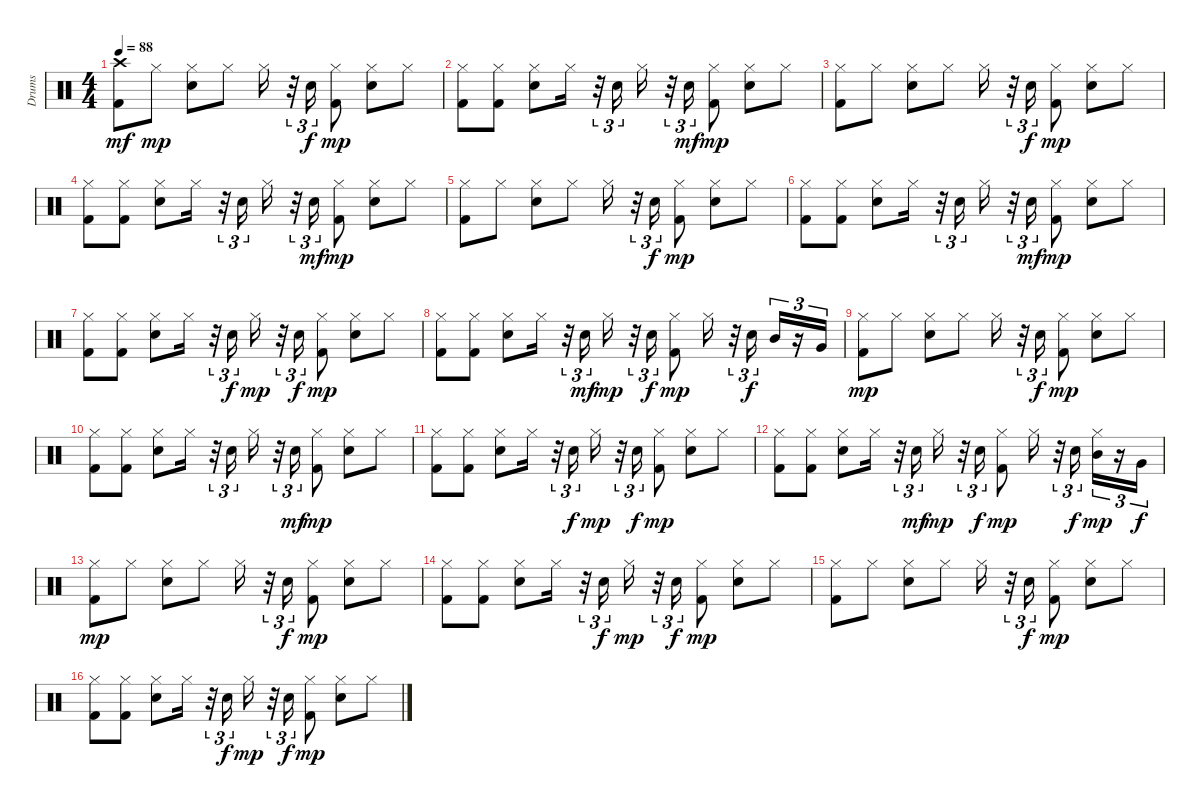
\track ("Drums" "Drums") {instrument percussion}
\staff {score}
\articulation defaults
\ts (4 4)
\tempo 88
\clef neutral
\ks c
("Crash high (hit)" "Kick (hit) 2").8{dy mf} "Hi-Hat (closed)".8{dy mp} ("Hi-Hat (closed)" "Electric Snare (hit)").8 "Hi-Hat (closed)".8 "Hi-Hat (closed)".16 r.32{tu (3 2)} "Electric Snare (hit)".16{tu (3 2) dy f} ("Hi-Hat (closed)" "Kick (hit) 2").8{dy mp} ("Hi-Hat (closed)" "Electric Snare (hit)").8 "Hi-Hat (closed)".8 |
("Hi-Hat (closed)" "Kick (hit) 2").8 ("Hi-Hat (closed)" "Kick (hit) 2").8 ("Hi-Hat (closed)" "Electric Snare (hit)").8 "Hi-Hat (closed)".16 r.32{tu (3 2)} "Electric Snare (hit)".16{tu (3 2)} "Hi-Hat (closed)".16 r.32{tu (3 2)} "Electric Snare (hit)".16{tu (3 2) dy mf} ("Hi-Hat (closed)" "Kick (hit) 2").8{dy mp} ("Hi-Hat (closed)" "Electric Snare (hit)").8 "Hi-Hat (closed)".8 |
("Hi-Hat (closed)" "Kick (hit) 2").8 "Hi-Hat (closed)".8 ("Hi-Hat (closed)" "Electric Snare (hit)").8 "Hi-Hat (closed)".8 "Hi-Hat (closed)".16 r.32{tu (3 2)} "Electric Snare (hit)".16{tu (3 2) dy f} ("Hi-Hat (closed)" "Kick (hit) 2").8{dy mp} ("Hi-Hat (closed)" "Electric Snare (hit)").8 "Hi-Hat (closed)".8 |
("Hi-Hat (closed)" "Kick (hit) 2").8 ("Hi-Hat (closed)" "Kick (hit) 2").8 ("Hi-Hat (closed)" "Electric Snare (hit)").8 "Hi-Hat (closed)".16 r.32{tu (3 2)} "Electric Snare (hit)".16{tu (3 2)} "Hi-Hat (closed)".16 r.32{tu (3 2)} "Electric Snare (hit)".16{tu (3 2) dy mf} ("Hi-Hat (closed)" "Kick (hit) 2").8{dy mp} ("Hi-Hat (closed)" "Electric Snare (hit)").8 "Hi-Hat (closed)".8 |
("Hi-Hat (closed)" "Kick (hit) 2").8 "Hi-Hat (closed)".8 ("Hi-Hat (closed)" "Electric Snare (hit)").8 "Hi-Hat (closed)".8 "Hi-Hat (closed)".16 r.32{tu (3 2)} "Electric Snare (hit)".16{tu (3 2) dy f} ("Hi-Hat (closed)" "Kick (hit) 2").8{dy mp} ("Hi-Hat (closed)" "Electric Snare (hit)").8 "Hi-Hat (closed)".8 |
("Hi-Hat (closed)" "Kick (hit) 2").8 ("Hi-Hat (closed)" "Kick (hit) 2").8 ("Hi-Hat (closed)" "Electric Snare (hit)").8 "Hi-Hat (closed)".16 r.32{tu (3 2)} "Electric Snare (hit)".16{tu (3 2)} "Hi-Hat (closed)".16 r.32{tu (3 2)} "Electric Snare (hit)".16{tu (3 2) dy mf} ("Hi-Hat (closed)" "Kick (hit) 2").8{dy mp} ("Hi-Hat (closed)" "Electric Snare (hit)").8 "Hi-Hat (closed)".8 |
("Hi-Hat (closed)" "Kick (hit) 2").8 ("Hi-Hat (closed)" "Kick (hit) 2").8 ("Hi-Hat (closed)" "Electric Snare (hit)").8 "Hi-Hat (closed)".16 r.32{tu (3 2)} "Electric Snare (hit)".16{tu (3 2) dy f} "Hi-Hat (closed)".16{dy mp} r.32{tu (3 2)} "Electric Snare (hit)".16{tu (3 2) dy f} ("Hi-Hat (closed)" "Kick (hit) 2").8{dy mp} ("Hi-Hat (closed)" "Electric Snare (hit)").8 "Hi-Hat (closed)".8 |
("Hi-Hat (closed)" "Kick (hit) 2").8 ("Hi-Hat (closed)" "Kick (hit) 2").8 ("Hi-Hat (closed)" "Electric Snare (hit)").8 "Hi-Hat (closed)".16 r.32{tu (3 2)} "Electric Snare (hit)".16{tu (3 2) dy mf} "Hi-Hat (closed)".16{dy mp} r.32{tu (3 2)} "Electric Snare (hit)".16{tu (3 2) dy f} ("Hi-Hat (closed)" "Kick (hit) 2").8{dy mp} "Hi-Hat (closed)".16 r.32{tu (3 2)} "Electric Snare (hit)".16{tu (3 2) dy f} "Mid Tom (hit)".16{tu (3 2)} r.16{tu (3 2)} "Very Low Tom (hit)".16{tu (3 2)} |
("Hi-Hat (closed)" "Kick (hit) 2").8{dy mp volume 13 balance 8} "Hi-Hat (closed)".8 ("Hi-Hat (closed)" "Electric Snare (hit)").8 "Hi-Hat (closed)".8 "Hi-Hat (closed)".16 r.32{tu (3 2)} "Electric Snare (hit)".16{tu (3 2) dy f} ("Hi-Hat (closed)" "Kick (hit) 2").8{dy mp} ("Hi-Hat (closed)" "Electric Snare (hit)").8 "Hi-Hat (closed)".8 |
("Hi-Hat (closed)" "Kick (hit) 2").8 ("Hi-Hat (closed)" "Kick (hit) 2").8 ("Hi-Hat (closed)" "Electric Snare (hit)").8 "Hi-Hat (closed)".16 r.32{tu (3 2)} "Electric Snare (hit)".16{tu (3 2)} "Hi-Hat (closed)".16 r.32{tu (3 2)} "Electric Snare (hit)".16{tu (3 2) dy mf} ("Hi-Hat (closed)" "Kick (hit) 2").8{dy mp} ("Hi-Hat (closed)" "Electric Snare (hit)").8 "Hi-Hat (closed)".8 |
("Hi-Hat (closed)" "Kick (hit) 2").8 ("Hi-Hat (closed)" "Kick (hit) 2").8 ("Hi-Hat (closed)" "Electric Snare (hit)").8 "Hi-Hat (closed)".16 r.32{tu (3 2)} "Electric Snare (hit)".16{tu (3 2) dy f} "Hi-Hat (closed)".16{dy mp} r.32{tu (3 2)} "Electric Snare (hit)".16{tu (3 2) dy f} ("Hi-Hat (closed)" "Kick (hit) 2").8{dy mp} ("Hi-Hat (closed)" "Electric Snare (hit)").8 "Hi-Hat (closed)".8 |
("Hi-Hat (closed)" "Kick (hit) 2").8 ("Hi-Hat (closed)" "Kick (hit) 2").8 ("Hi-Hat (closed)" "Electric Snare (hit)").8 "Hi-Hat (closed)".16 r.32{tu (3 2)} "Electric Snare (hit)".16{tu (3 2) dy mf} "Hi-Hat (closed)".16{dy mp} r.32{tu (3 2)} "Electric Snare (hit)".16{tu (3 2) dy f} ("Hi-Hat (closed)" "Kick (hit) 2").8{dy mp} "Hi-Hat (closed)".16 r.32{tu (3 2)} "Electric Snare (hit)".16{tu (3 2) dy f} ("Hi-Hat (closed)" "Mid Tom (hit)").16{tu (3 2) dy mp} r.16{tu (3 2)} "Very Low Tom (hit)".16{tu (3 2) dy f} |
("Hi-Hat (closed)" "Kick (hit) 2").8{dy mp} "Hi-Hat (closed)".8 ("Hi-Hat (closed)" "Electric Snare (hit)").8 "Hi-Hat (closed)".8 "Hi-Hat (closed)".16 r.32{tu (3 2)} "Electric Snare (hit)".16{tu (3 2) dy f} ("Hi-Hat (closed)" "Kick (hit) 2").8{dy mp} ("Hi-Hat (closed)" "Electric Snare (hit)").8 "Hi-Hat (closed)".8 |
("Hi-Hat (closed)" "Kick (hit) 2").8 ("Hi-Hat (closed)" "Kick (hit) 2").8 ("Hi-Hat (closed)" "Electric Snare (hit)").8 "Hi-Hat (closed)".16 r.32{tu (3 2)} "Electric Snare (hit)".16{tu (3 2) dy f} "Hi-Hat (closed)".16{dy mp} r.32{tu (3 2)} "Electric Snare (hit)".16{tu (3 2) dy f} ("Hi-Hat (closed)" "Kick (hit) 2").8{dy mp} ("Hi-Hat (closed)" "Electric Snare (hit)").8 "Hi-Hat (closed)".8 |
("Hi-Hat (closed)" "Kick (hit) 2").8 "Hi-Hat (closed)".8 ("Hi-Hat (closed)" "Electric Snare (hit)").8 "Hi-Hat (closed)".8 "Hi-Hat (closed)".16 r.32{tu (3 2)} "Electric Snare (hit)".16{tu (3 2) dy f} ("Hi-Hat (closed)" "Kick (hit) 2").8{dy mp} ("Hi-Hat (closed)" "Electric Snare (hit)").8 "Hi-Hat (closed)".8 |
("Hi-Hat (closed)" "Kick (hit) 2").8 ("Hi-Hat (closed)" "Kick (hit) 2").8 ("Hi-Hat (closed)" "Electric Snare (hit)").8 "Hi-Hat (closed)".16 r.32{tu (3 2)} "Electric Snare (hit)".16{tu (3 2) dy f} "Hi-Hat (closed)".16{dy mp} r.32{tu (3 2)} "Electric Snare (hit)".16{tu (3 2) dy f} ("Hi-Hat (closed)" "Kick (hit) 2").8{dy mp} ("Hi-Hat (closed)" "Electric Snare (hit)").8 "Hi-Hat (closed)".8
